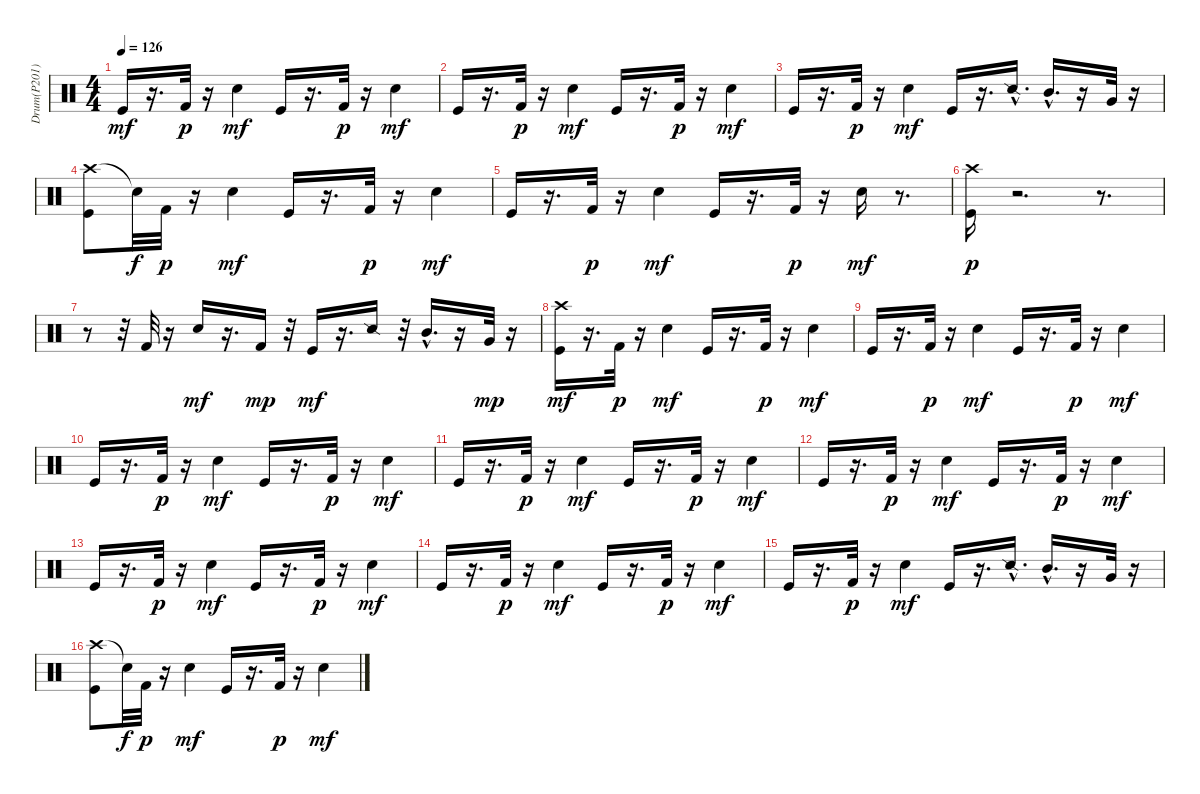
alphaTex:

\track ("Drum(P201)" "Drum(P201)") {instrument percussion}
\staff {score}
\articulation defaults
\ts (4 4)
\tempo 126
\clef neutral
\ks c "Kick (hit)".16{dy mf}
r.16{d} "Kick (hit) 2".32{dy p} r.16 "Snare (hit) 2".4{dy mf} "Kick (hit)".16 r.16{d} "Kick (hit) 2".32{dy p} r.16 "Snare (hit) 2".4{dy mf} |
"Kick (hit)".16 r.16{d} "Kick (hit) 2".32{dy p} r.16 "Snare (hit) 2".4{dy mf} "Kick (hit)".16 r.16{d} "Kick (hit) 2".32{dy p} r.16 "Snare (hit) 2".4{dy mf} |
"Kick (hit)".16 r.16{d} "Kick (hit) 2".32{dy p} r.16 "Snare (hit) 2".4{dy mf} "Kick (hit)".16 r.16{d} "Snare (side stick) 2"{hac}.16{d} "Mid Tom (hit)"{hac}.16{d} r.16 "Very Low Tom (hit)".32 r.16 |
("Crash high (hit)" "Kick (hit)").8 "Snare (hit)"{t}.32{dy f} "Kick (hit) 2".32{dy p} r.16 "Snare (hit) 2".4{dy mf} "Kick (hit)".16 r.16{d} "Kick (hit) 2".32{dy p} r.16 "Snare (hit) 2".4{dy mf} |
"Kick (hit)".16 r.16{d} "Kick (hit) 2".32{dy p} r.16 "Snare (hit) 2".4{dy mf} "Kick (hit)".16 r.16{d} "Kick (hit) 2".32{dy p} r.16 "Snare (hit) 2".16{dy mf} r.8{d} |
("Kick (hit)" "Crash high (hit)").16{dy p} r.2{d} r.8{d} |
r.8 r.32 "Kick (hit) 2".32 r.16 "Snare (hit) 2".16{dy mf} r.16{d} "Kick (hit) 2".16{dy mp} r.32 "Kick (hit)".16{dy mf} r.16{d} "Snare (side stick) 2".16 r.32 "Mid Tom (hit)"{hac}.16{d} r.16 "Very Low Tom (hit)".32{dy mp} r.16 |
("Crash high (hit)" "Kick (hit)").16{dy mf} r.16{d} "Kick (hit) 2".32{dy p} r.16 "Snare (hit) 2".4{dy mf} "Kick (hit)".16 r.16{d} "Kick (hit) 2".32{dy p} r.16 "Snare (hit) 2".4{dy mf} |
"Kick (hit)".16 r.16{d} "Kick (hit) 2".32{dy p} r.16 "Snare (hit) 2".4{dy mf} "Kick (hit)".16 r.16{d} "Kick (hit) 2".32{dy p} r.16 "Snare (hit) 2".4{dy mf} |
"Kick (hit)".16 r.16{d} "Kick (hit) 2".32{dy p} r.16 "Snare (hit) 2".4{dy mf} "Kick (hit)".16 r.16{d} "Kick (hit) 2".32{dy p} r.16 "Snare (hit) 2".4{dy mf} |
"Kick (hit)".16 r.16{d} "Kick (hit) 2".32{dy p} r.16 "Snare (hit) 2".4{dy mf} "Kick (hit)".16 r.16{d} "Kick (hit) 2".32{dy p} r.16 "Snare (hit) 2".4{dy mf} |
"Kick (hit)".16 r.16{d} "Kick (hit) 2".32{dy p} r.16 "Snare (hit) 2".4{dy mf} "Kick (hit)".16 r.16{d} "Kick (hit) 2".32{dy p} r.16 "Snare (hit) 2".4{dy mf} |
"Kick (hit)".16 r.16{d} "Kick (hit) 2".32{dy p} r.16 "Snare (hit) 2".4{dy mf} "Kick (hit)".16 r.16{d} "Kick (hit) 2".32{dy p} r.16 "Snare (hit) 2".4{dy mf} |
"Kick (hit)".16 r.16{d} "Kick (hit) 2".32{dy p} r.16 "Snare (hit) 2".4{dy mf} "Kick (hit)".16 r.16{d} "Kick (hit) 2".32{dy p} r.16 "Snare (hit) 2".4{dy mf} |
"Kick (hit)".16 r.16{d} "Kick (hit) 2".32{dy p} r.16 "Snare (hit) 2".4{dy mf} "Kick (hit)".16 r.16{d} "Snare (side stick) 2"{hac}.16{d} "Mid Tom (hit)"{hac}.16{d} r.16 "Very Low Tom (hit)".32 r.16 |
("Crash high (hit)" "Kick (hit)").8 "Snare (hit)"{t}.32{dy f} "Kick (hit) 2".32{dy p} r.16 "Snare (hit) 2".4{dy mf} "Kick (hit)".16 r.16{d} "Kick (hit) 2".32{dy p} r.16 "Snare (hit) 2".4{dy mf}
